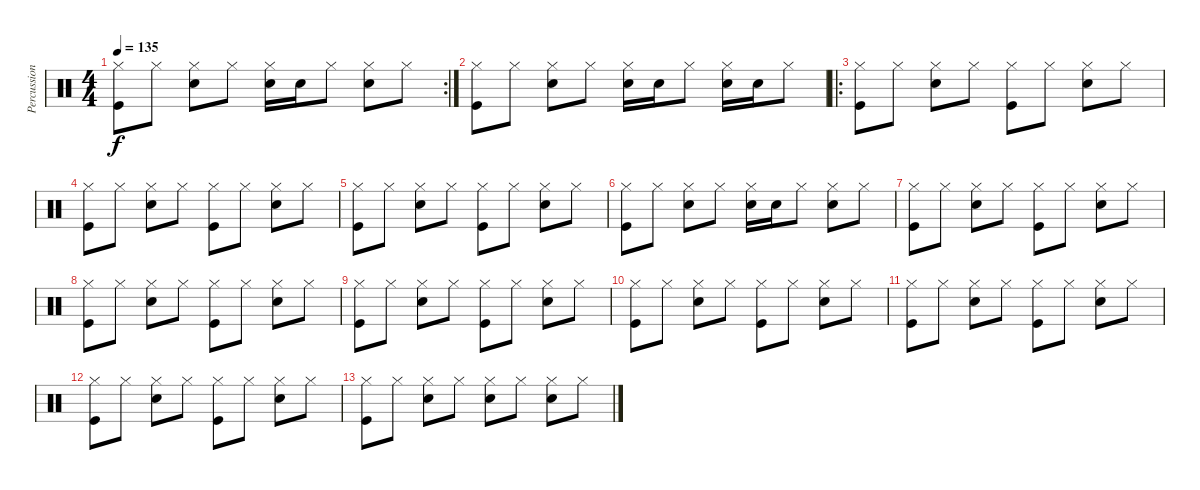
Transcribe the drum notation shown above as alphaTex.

\track ("Percussions" "Percussion") {instrument percussion}
\staff {score}
\articulation defaults
\rc 2
\ts (4 4)
\tempo 135
\clef neutral
\ks c
("Hi-Hat (closed)" "Kick (hit)").8{dy f} "Hi-Hat (closed)".8 ("Hi-Hat (closed)" "Snare (hit) 2").8 "Hi-Hat (closed)".8 ("Hi-Hat (closed)" "Snare (hit) 2").16 "Snare (hit) 2".16 "Hi-Hat (closed)".8 ("Hi-Hat (closed)" "Snare (hit) 2").8 "Hi-Hat (closed)".8 |
("Hi-Hat (closed)" "Kick (hit)").8 "Hi-Hat (closed)".8 ("Hi-Hat (closed)" "Snare (hit) 2").8 "Hi-Hat (closed)".8 ("Hi-Hat (closed)" "Snare (hit) 2").16 "Snare (hit) 2".16 "Hi-Hat (closed)".8 ("Hi-Hat (closed)" "Snare (hit) 2").16 "Snare (hit) 2".16 "Hi-Hat (closed)".8 |
\ro
("Hi-Hat (closed)" "Kick (hit)").8 "Hi-Hat (closed)".8 ("Hi-Hat (closed)" "Snare (hit) 2").8 "Hi-Hat (closed)".8 ("Hi-Hat (closed)" "Kick (hit)").8 "Hi-Hat (closed)".8 ("Hi-Hat (closed)" "Snare (hit) 2").8 "Hi-Hat (closed)".8 |
("Hi-Hat (closed)" "Kick (hit)").8 "Hi-Hat (closed)".8 ("Hi-Hat (closed)" "Snare (hit) 2").8 "Hi-Hat (closed)".8 ("Hi-Hat (closed)" "Kick (hit)").8 "Hi-Hat (closed)".8 ("Hi-Hat (closed)" "Snare (hit) 2").8 "Hi-Hat (closed)".8 |
("Hi-Hat (closed)" "Kick (hit)").8 "Hi-Hat (closed)".8 ("Hi-Hat (closed)" "Snare (hit) 2").8 "Hi-Hat (closed)".8 ("Hi-Hat (closed)" "Kick (hit)").8 "Hi-Hat (closed)".8 ("Hi-Hat (closed)" "Snare (hit) 2").8 "Hi-Hat (closed)".8 |
("Hi-Hat (closed)" "Kick (hit)").8 "Hi-Hat (closed)".8 ("Hi-Hat (closed)" "Snare (hit) 2").8 "Hi-Hat (closed)".8 ("Hi-Hat (closed)" "Snare (hit) 2").16 "Snare (hit) 2".16 "Hi-Hat (closed)".8 ("Hi-Hat (closed)" "Snare (hit) 2").8 "Hi-Hat (closed)".8 |
("Hi-Hat (closed)" "Kick (hit)").8 "Hi-Hat (closed)".8 ("Hi-Hat (closed)" "Snare (hit) 2").8 "Hi-Hat (closed)".8 ("Hi-Hat (closed)" "Kick (hit)").8 "Hi-Hat (closed)".8 ("Hi-Hat (closed)" "Snare (hit) 2").8 "Hi-Hat (closed)".8 |
("Hi-Hat (closed)" "Kick (hit)").8 "Hi-Hat (closed)".8 ("Hi-Hat (closed)" "Snare (hit) 2").8 "Hi-Hat (closed)".8 ("Hi-Hat (closed)" "Kick (hit)").8 "Hi-Hat (closed)".8 ("Hi-Hat (closed)" "Snare (hit) 2").8 "Hi-Hat (closed)".8 |
("Hi-Hat (closed)" "Kick (hit)").8 "Hi-Hat (closed)".8 ("Hi-Hat (closed)" "Snare (hit) 2").8 "Hi-Hat (closed)".8 ("Hi-Hat (closed)" "Kick (hit)").8 "Hi-Hat (closed)".8 ("Hi-Hat (closed)" "Snare (hit) 2").8 "Hi-Hat (closed)".8 |
("Hi-Hat (closed)" "Kick (hit)").8 "Hi-Hat (closed)".8 ("Hi-Hat (closed)" "Snare (hit) 2").8 "Hi-Hat (closed)".8 ("Hi-Hat (closed)" "Kick (hit)").8 "Hi-Hat (closed)".8 ("Hi-Hat (closed)" "Snare (hit) 2").8 "Hi-Hat (closed)".8 |
("Hi-Hat (closed)" "Kick (hit)").8 "Hi-Hat (closed)".8 ("Hi-Hat (closed)" "Snare (hit) 2").8 "Hi-Hat (closed)".8 ("Hi-Hat (closed)" "Kick (hit)").8 "Hi-Hat (closed)".8 ("Hi-Hat (closed)" "Snare (hit) 2").8 "Hi-Hat (closed)".8 |
("Hi-Hat (closed)" "Kick (hit)").8 "Hi-Hat (closed)".8 ("Hi-Hat (closed)" "Snare (hit) 2").8 "Hi-Hat (closed)".8 ("Hi-Hat (closed)" "Kick (hit)").8 "Hi-Hat (closed)".8 ("Hi-Hat (closed)" "Snare (hit) 2").8 "Hi-Hat (closed)".8 |
("Hi-Hat (closed)" "Kick (hit)").8 "Hi-Hat (closed)".8 ("Hi-Hat (closed)" "Snare (hit) 2").8 "Hi-Hat (closed)".8 ("Hi-Hat (closed)" "Snare (hit) 2").8 "Hi-Hat (closed)".8 ("Hi-Hat (closed)" "Snare (hit) 2").8 "Hi-Hat (closed)".8
